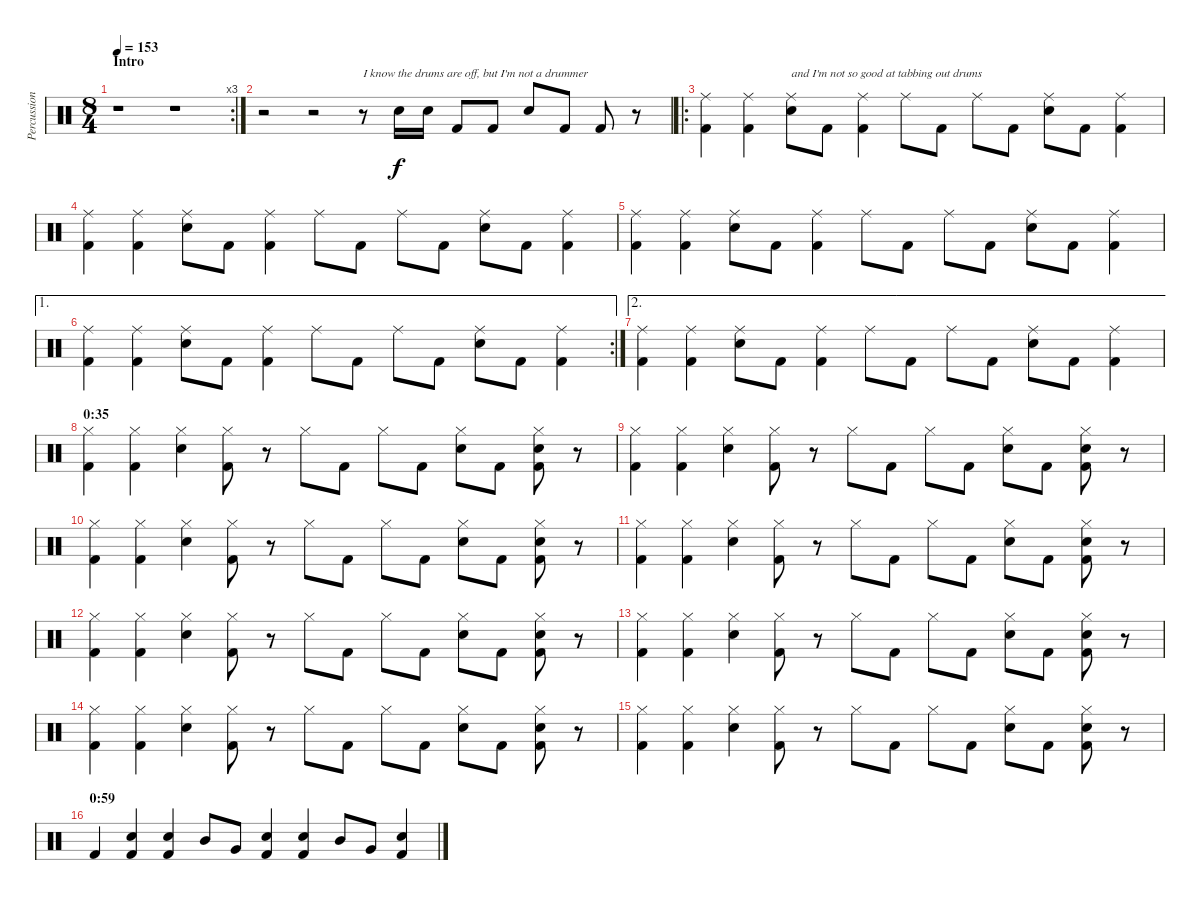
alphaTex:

\track ("Percussion" "Percussion") {instrument percussion}
\staff {score}
\articulation defaults
\rc 3
\ts (8 4)
\section ("" "Intro")
\tempo 153
\clef neutral
\ks c
r.1{dy f} r.1 |
r.2 r.2 r.8{txt "I know the drums are off, but I'm not a drummer"} "Snare (hit) 2".16 "Snare (hit) 2".16 "Kick (hit) 2".8 "Kick (hit) 2".8 "Snare (hit) 2".8 "Kick (hit) 2".8 "Kick (hit) 2".8 r.8 |
\ro
("Ride (middle)" "Kick (hit) 2").4 ("Ride (middle)" "Kick (hit) 2").4 ("Ride (middle)" "Snare (hit) 2").8{txt "and I'm not so good at tabbing out drums"} "Kick (hit) 2".8 ("Ride (middle)" "Kick (hit) 2").4 "Ride (middle)".8 "Kick (hit) 2".8 "Ride (middle)".8 "Kick (hit) 2".8 ("Ride (middle)" "Snare (hit) 2").8 "Kick (hit) 2".8 ("Ride (middle)" "Kick (hit) 2").4 |
("Ride (middle)" "Kick (hit) 2").4 ("Ride (middle)" "Kick (hit) 2").4 ("Ride (middle)" "Snare (hit) 2").8 "Kick (hit) 2".8 ("Ride (middle)" "Kick (hit) 2").4 "Ride (middle)".8 "Kick (hit) 2".8 "Ride (middle)".8 "Kick (hit) 2".8 ("Ride (middle)" "Snare (hit) 2").8 "Kick (hit) 2".8 ("Ride (middle)" "Kick (hit) 2").4 |
("Ride (middle)" "Kick (hit) 2").4 ("Ride (middle)" "Kick (hit) 2").4 ("Ride (middle)" "Snare (hit) 2").8 "Kick (hit) 2".8 ("Ride (middle)" "Kick (hit) 2").4 "Ride (middle)".8 "Kick (hit) 2".8 "Ride (middle)".8 "Kick (hit) 2".8 ("Ride (middle)" "Snare (hit) 2").8 "Kick (hit) 2".8 ("Ride (middle)" "Kick (hit) 2").4 |
\ae 1
\rc 2
("Ride (middle)" "Kick (hit) 2").4 ("Ride (middle)" "Kick (hit) 2").4 ("Ride (middle)" "Snare (hit) 2").8 "Kick (hit) 2".8 ("Ride (middle)" "Kick (hit) 2").4 "Ride (middle)".8 "Kick (hit) 2".8 "Ride (middle)".8 "Kick (hit) 2".8 ("Ride (middle)" "Snare (hit) 2").8 "Kick (hit) 2".8 ("Ride (middle)" "Kick (hit) 2").4 |
\ae 2
("Ride (middle)" "Kick (hit) 2").4 ("Ride (middle)" "Kick (hit) 2").4 ("Ride (middle)" "Snare (hit) 2").8 "Kick (hit) 2".8 ("Ride (middle)" "Kick (hit) 2").4 "Ride (middle)".8 "Kick (hit) 2".8 "Ride (middle)".8 "Kick (hit) 2".8 ("Ride (middle)" "Snare (hit) 2").8 "Kick (hit) 2".8 ("Ride (middle)" "Kick (hit) 2").4 |
\section ("" "0:35")
("Hi-Hat (closed)" "Kick (hit) 2").4 ("Hi-Hat (closed)" "Kick (hit) 2").4 ("Hi-Hat (closed)" "Snare (hit) 2").4 ("Hi-Hat (closed)" "Kick (hit) 2").8 r.8 "Hi-Hat (closed)".8 "Kick (hit) 2".8 "Hi-Hat (closed)".8 "Kick (hit) 2".8 ("Hi-Hat (closed)" "Snare (hit) 2").8 "Kick (hit) 2".8 ("Hi-Hat (closed)" "Snare (hit) 2" "Kick (hit) 2").8 r.8 |
("Hi-Hat (closed)" "Kick (hit) 2").4 ("Hi-Hat (closed)" "Kick (hit) 2").4 ("Hi-Hat (closed)" "Snare (hit) 2").4 ("Hi-Hat (closed)" "Kick (hit) 2").8 r.8 "Hi-Hat (closed)".8 "Kick (hit) 2".8 "Hi-Hat (closed)".8 "Kick (hit) 2".8 ("Hi-Hat (closed)" "Snare (hit) 2").8 "Kick (hit) 2".8 ("Hi-Hat (closed)" "Snare (hit) 2" "Kick (hit) 2").8 r.8 |
("Hi-Hat (closed)" "Kick (hit) 2").4 ("Hi-Hat (closed)" "Kick (hit) 2").4 ("Hi-Hat (closed)" "Snare (hit) 2").4 ("Hi-Hat (closed)" "Kick (hit) 2").8 r.8 "Hi-Hat (closed)".8 "Kick (hit) 2".8 "Hi-Hat (closed)".8 "Kick (hit) 2".8 ("Hi-Hat (closed)" "Snare (hit) 2").8 "Kick (hit) 2".8 ("Hi-Hat (closed)" "Snare (hit) 2" "Kick (hit) 2").8 r.8 |
("Hi-Hat (closed)" "Kick (hit) 2").4 ("Hi-Hat (closed)" "Kick (hit) 2").4 ("Hi-Hat (closed)" "Snare (hit) 2").4 ("Hi-Hat (closed)" "Kick (hit) 2").8 r.8 "Hi-Hat (closed)".8 "Kick (hit) 2".8 "Hi-Hat (closed)".8 "Kick (hit) 2".8 ("Hi-Hat (closed)" "Snare (hit) 2").8 "Kick (hit) 2".8 ("Hi-Hat (closed)" "Snare (hit) 2" "Kick (hit) 2").8 r.8 |
("Hi-Hat (closed)" "Kick (hit) 2").4 ("Hi-Hat (closed)" "Kick (hit) 2").4 ("Hi-Hat (closed)" "Snare (hit) 2").4 ("Hi-Hat (closed)" "Kick (hit) 2").8 r.8 "Hi-Hat (closed)".8 "Kick (hit) 2".8 "Hi-Hat (closed)".8 "Kick (hit) 2".8 ("Hi-Hat (closed)" "Snare (hit) 2").8 "Kick (hit) 2".8 ("Hi-Hat (closed)" "Snare (hit) 2" "Kick (hit) 2").8 r.8 |
("Hi-Hat (closed)" "Kick (hit) 2").4 ("Hi-Hat (closed)" "Kick (hit) 2").4 ("Hi-Hat (closed)" "Snare (hit) 2").4 ("Hi-Hat (closed)" "Kick (hit) 2").8 r.8 "Hi-Hat (closed)".8 "Kick (hit) 2".8 "Hi-Hat (closed)".8 "Kick (hit) 2".8 ("Hi-Hat (closed)" "Snare (hit) 2").8 "Kick (hit) 2".8 ("Hi-Hat (closed)" "Snare (hit) 2" "Kick (hit) 2").8 r.8 |
("Hi-Hat (closed)" "Kick (hit) 2").4 ("Hi-Hat (closed)" "Kick (hit) 2").4 ("Hi-Hat (closed)" "Snare (hit) 2").4 ("Hi-Hat (closed)" "Kick (hit) 2").8 r.8 "Hi-Hat (closed)".8 "Kick (hit) 2".8 "Hi-Hat (closed)".8 "Kick (hit) 2".8 ("Hi-Hat (closed)" "Snare (hit) 2").8 "Kick (hit) 2".8 ("Hi-Hat (closed)" "Snare (hit) 2" "Kick (hit) 2").8 r.8 |
("Hi-Hat (closed)" "Kick (hit) 2").4 ("Hi-Hat (closed)" "Kick (hit) 2").4 ("Hi-Hat (closed)" "Snare (hit) 2").4 ("Hi-Hat (closed)" "Kick (hit) 2").8 r.8 "Hi-Hat (closed)".8 "Kick (hit) 2".8 "Hi-Hat (closed)".8 "Kick (hit) 2".8 ("Hi-Hat (closed)" "Snare (hit) 2").8 "Kick (hit) 2".8 ("Hi-Hat (closed)" "Snare (hit) 2" "Kick (hit) 2").8 r.8 |
\section ("" "0:59")
"Kick (hit) 2".4 ("Snare (hit) 2" "Kick (hit) 2").4 ("Snare (hit) 2" "Kick (hit) 2").4 "Mid Tom (hit)".8 "Very Low Tom (hit)".8 ("Snare (hit) 2" "Kick (hit) 2").4 ("Snare (hit) 2" "Kick (hit) 2").4 "Mid Tom (hit)".8 "Very Low Tom (hit)".8 ("Snare (hit) 2" "Kick (hit) 2").4
